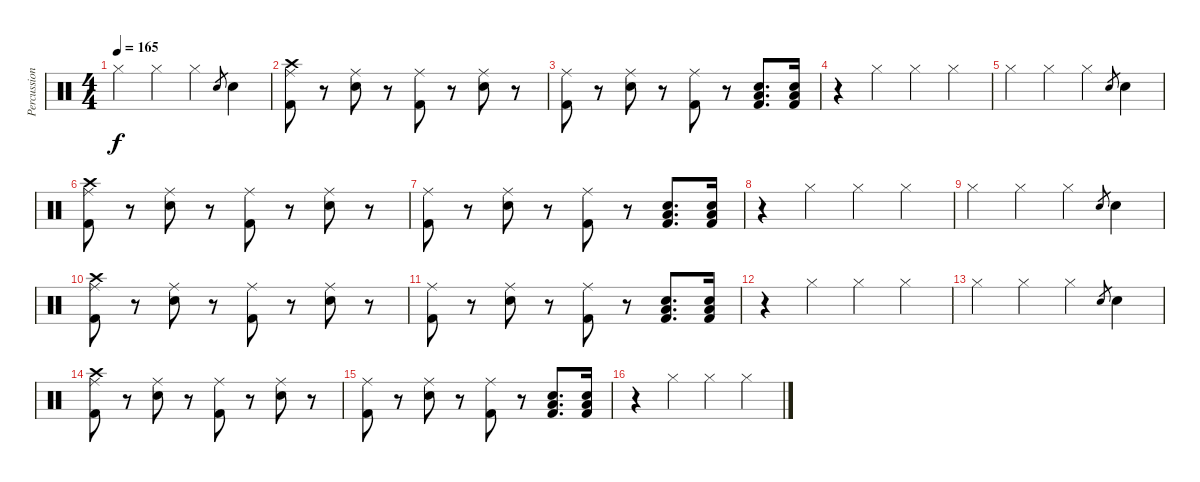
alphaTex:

\track ("Percussions" "Percussion") {instrument percussion}
\staff {score}
\articulation defaults
\ts (4 4)
\tempo 165
\clef neutral
\ks c "Hi-Hat (closed)".4{dy f} "Hi-Hat (closed)".4 "Hi-Hat (closed)".4 "Snare (hit) 2".8{gr} "Snare (hit) 2".4
|
("Kick (hit) 2" "Crash high (hit)" "Ride (middle)").8 r.8 ("Electric Snare (hit)" "Ride (middle)").8 r.8 ("Kick (hit) 2" "Ride (middle)").8 r.8 ("Electric Snare (hit)" "Ride (middle)").8 r.8 |
("Kick (hit) 2" "Ride (middle)").8 r.8 ("Electric Snare (hit)" "Ride (middle)").8 r.8 ("Kick (hit) 2" "Ride (middle)").8 r.8 ("Electric Snare (hit)" "Low Tom (hit)" "Kick (hit) 2").8{d} ("Electric Snare (hit)" "Low Tom (hit)" "Kick (hit) 2").16 |
r.4 "Hi-Hat (closed)".4 "Hi-Hat (closed)".4 "Hi-Hat (closed)".4 |
"Hi-Hat (closed)".4 "Hi-Hat (closed)".4 "Hi-Hat (closed)".4 "Snare (hit) 2".8{gr} "Snare (hit) 2".4 |
("Kick (hit) 2" "Crash high (hit)" "Ride (middle)").8 r.8 ("Electric Snare (hit)" "Ride (middle)").8 r.8 ("Kick (hit) 2" "Ride (middle)").8 r.8 ("Electric Snare (hit)" "Ride (middle)").8 r.8 |
("Kick (hit) 2" "Ride (middle)").8 r.8 ("Electric Snare (hit)" "Ride (middle)").8 r.8 ("Kick (hit) 2" "Ride (middle)").8 r.8 ("Electric Snare (hit)" "Low Tom (hit)" "Kick (hit) 2").8{d} ("Electric Snare (hit)" "Low Tom (hit)" "Kick (hit) 2").16 |
r.4 "Hi-Hat (closed)".4 "Hi-Hat (closed)".4 "Hi-Hat (closed)".4 |
"Hi-Hat (closed)".4 "Hi-Hat (closed)".4 "Hi-Hat (closed)".4 "Snare (hit) 2".8{gr} "Snare (hit) 2".4 |
("Kick (hit) 2" "Crash high (hit)" "Ride (middle)").8 r.8 ("Electric Snare (hit)" "Ride (middle)").8 r.8 ("Kick (hit) 2" "Ride (middle)").8 r.8 ("Electric Snare (hit)" "Ride (middle)").8 r.8 |
("Kick (hit) 2" "Ride (middle)").8 r.8 ("Electric Snare (hit)" "Ride (middle)").8 r.8 ("Kick (hit) 2" "Ride (middle)").8 r.8 ("Electric Snare (hit)" "Low Tom (hit)" "Kick (hit) 2").8{d} ("Electric Snare (hit)" "Low Tom (hit)" "Kick (hit) 2").16 |
r.4 "Hi-Hat (closed)".4 "Hi-Hat (closed)".4 "Hi-Hat (closed)".4 |
"Hi-Hat (closed)".4 "Hi-Hat (closed)".4 "Hi-Hat (closed)".4 "Snare (hit) 2".8{gr} "Snare (hit) 2".4 |
("Kick (hit) 2" "Crash high (hit)" "Ride (middle)").8 r.8 ("Electric Snare (hit)" "Ride (middle)").8 r.8 ("Kick (hit) 2" "Ride (middle)").8 r.8 ("Electric Snare (hit)" "Ride (middle)").8 r.8 |
("Kick (hit) 2" "Ride (middle)").8 r.8 ("Electric Snare (hit)" "Ride (middle)").8 r.8 ("Kick (hit) 2" "Ride (middle)").8 r.8 ("Electric Snare (hit)" "Low Tom (hit)" "Kick (hit) 2").8{d} ("Electric Snare (hit)" "Low Tom (hit)" "Kick (hit) 2").16 |
r.4 "Hi-Hat (closed)".4 "Hi-Hat (closed)".4 "Hi-Hat (closed)".4
